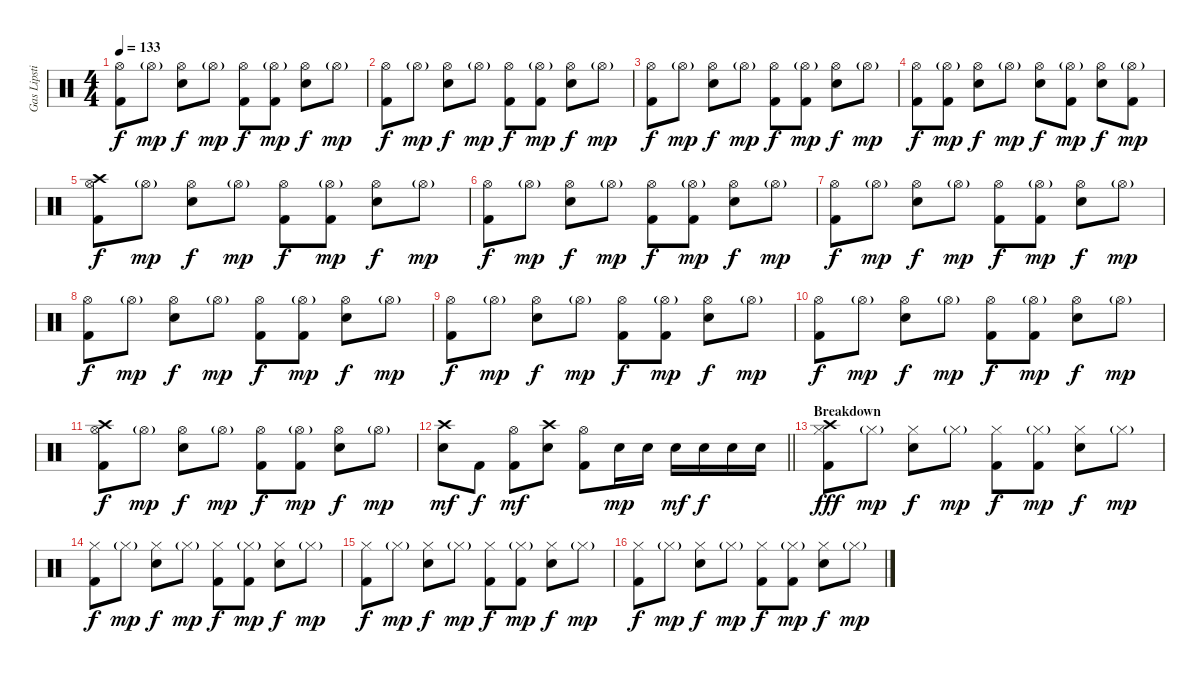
\track ("Gas Lipstick (Drums)" "Gas Lipsti") {instrument percussion}
\staff {score}
\articulation defaults
\ts (4 4)
\tempo 133
\clef neutral
\ks c
("Hi-Hat (open)" "Kick (hit) 2").8{dy f} "Hi-Hat (open)"{g}.8{dy mp} ("Hi-Hat (open)" "Snare (hit) 2").8{dy f} "Hi-Hat (open)"{g}.8{dy mp} ("Hi-Hat (open)" "Kick (hit) 2").8{dy f} ("Hi-Hat (open)"{g} "Kick (hit) 2").8{dy mp} ("Hi-Hat (open)" "Snare (hit) 2").8{dy f} "Hi-Hat (open)"{g}.8{dy mp} |
("Hi-Hat (open)" "Kick (hit) 2").8{dy f} "Hi-Hat (open)"{g}.8{dy mp} ("Hi-Hat (open)" "Snare (hit) 2").8{dy f} "Hi-Hat (open)"{g}.8{dy mp} ("Hi-Hat (open)" "Kick (hit) 2").8{dy f} ("Hi-Hat (open)"{g} "Kick (hit) 2").8{dy mp} ("Hi-Hat (open)" "Snare (hit) 2").8{dy f} "Hi-Hat (open)"{g}.8{dy mp} |
("Hi-Hat (open)" "Kick (hit) 2").8{dy f} "Hi-Hat (open)"{g}.8{dy mp} ("Hi-Hat (open)" "Snare (hit) 2").8{dy f} "Hi-Hat (open)"{g}.8{dy mp} ("Hi-Hat (open)" "Kick (hit) 2").8{dy f} ("Hi-Hat (open)"{g} "Kick (hit) 2").8{dy mp} ("Hi-Hat (open)" "Snare (hit) 2").8{dy f} "Hi-Hat (open)"{g}.8{dy mp} |
("Hi-Hat (open)" "Kick (hit) 2").8{dy f} ("Hi-Hat (open)"{g} "Kick (hit) 2").8{dy mp} ("Hi-Hat (open)" "Snare (hit) 2").8{dy f} "Hi-Hat (open)"{g}.8{dy mp} ("Hi-Hat (open)" "Snare (hit) 2").8{dy f} ("Hi-Hat (open)"{g} "Kick (hit) 2").8{dy mp} ("Hi-Hat (open)" "Snare (hit) 2").8{dy f} ("Hi-Hat (open)"{g} "Kick (hit) 2").8{dy mp} |
("Crash high (hit)" "Hi-Hat (open)" "Kick (hit) 2").8{dy f} "Hi-Hat (open)"{g}.8{dy mp} ("Hi-Hat (open)" "Snare (hit) 2").8{dy f} "Hi-Hat (open)"{g}.8{dy mp} ("Hi-Hat (open)" "Kick (hit) 2").8{dy f} ("Hi-Hat (open)"{g} "Kick (hit) 2").8{dy mp} ("Hi-Hat (open)" "Snare (hit) 2").8{dy f} "Hi-Hat (open)"{g}.8{dy mp} |
("Hi-Hat (open)" "Kick (hit) 2").8{dy f} "Hi-Hat (open)"{g}.8{dy mp} ("Hi-Hat (open)" "Snare (hit) 2").8{dy f} "Hi-Hat (open)"{g}.8{dy mp} ("Hi-Hat (open)" "Kick (hit) 2").8{dy f} ("Hi-Hat (open)"{g} "Kick (hit) 2").8{dy mp} ("Hi-Hat (open)" "Snare (hit) 2").8{dy f} "Hi-Hat (open)"{g}.8{dy mp} |
("Hi-Hat (open)" "Kick (hit) 2").8{dy f} "Hi-Hat (open)"{g}.8{dy mp} ("Hi-Hat (open)" "Snare (hit) 2").8{dy f} "Hi-Hat (open)"{g}.8{dy mp} ("Hi-Hat (open)" "Kick (hit) 2").8{dy f} ("Hi-Hat (open)"{g} "Kick (hit) 2").8{dy mp} ("Hi-Hat (open)" "Snare (hit) 2").8{dy f} "Hi-Hat (open)"{g}.8{dy mp} |
("Hi-Hat (open)" "Kick (hit) 2").8{dy f} "Hi-Hat (open)"{g}.8{dy mp} ("Hi-Hat (open)" "Snare (hit) 2").8{dy f} "Hi-Hat (open)"{g}.8{dy mp} ("Hi-Hat (open)" "Kick (hit) 2").8{dy f} ("Hi-Hat (open)"{g} "Kick (hit) 2").8{dy mp} ("Hi-Hat (open)" "Snare (hit) 2").8{dy f} "Hi-Hat (open)"{g}.8{dy mp} |
("Hi-Hat (open)" "Kick (hit) 2").8{dy f} "Hi-Hat (open)"{g}.8{dy mp} ("Hi-Hat (open)" "Snare (hit) 2").8{dy f} "Hi-Hat (open)"{g}.8{dy mp} ("Hi-Hat (open)" "Kick (hit) 2").8{dy f} ("Hi-Hat (open)"{g} "Kick (hit) 2").8{dy mp} ("Hi-Hat (open)" "Snare (hit) 2").8{dy f} "Hi-Hat (open)"{g}.8{dy mp} |
("Hi-Hat (open)" "Kick (hit) 2").8{dy f} "Hi-Hat (open)"{g}.8{dy mp} ("Hi-Hat (open)" "Snare (hit) 2").8{dy f} "Hi-Hat (open)"{g}.8{dy mp} ("Hi-Hat (open)" "Kick (hit) 2").8{dy f} ("Hi-Hat (open)"{g} "Kick (hit) 2").8{dy mp} ("Hi-Hat (open)" "Snare (hit) 2").8{dy f} "Hi-Hat (open)"{g}.8{dy mp} |
("Crash high (hit)" "Hi-Hat (open)" "Kick (hit) 2").8{dy f} "Hi-Hat (open)"{g}.8{dy mp} ("Hi-Hat (open)" "Snare (hit) 2").8{dy f} "Hi-Hat (open)"{g}.8{dy mp} ("Hi-Hat (open)" "Kick (hit) 2").8{dy f} ("Hi-Hat (open)"{g} "Kick (hit) 2").8{dy mp} ("Hi-Hat (open)" "Snare (hit) 2").8{dy f} "Hi-Hat (open)"{g}.8{dy mp} |
\barLineRight lightlight
("Crash high (hit)" "Snare (hit) 2").8{dy mf} "Kick (hit) 2".8{dy f} ("Hi-Hat (open)" "Kick (hit) 2").8{dy mf} ("Crash high (hit)" "Snare (hit) 2").8 ("Hi-Hat (open)" "Kick (hit) 2").8 "Snare (hit) 2".16{dy mp} "Snare (hit) 2".16 "Snare (hit) 2".16{dy mf} "Snare (hit) 2".16{dy f} "Snare (hit) 2".16 "Snare (hit) 2".16 |
\section ("" "Breakdown")
("Crash high (hit)" "Hi-Hat (closed)" "Kick (hit) 2").8{dy fff} "Hi-Hat (closed)"{g}.8{dy mp} ("Hi-Hat (closed)" "Snare (hit) 2").8{dy f} "Hi-Hat (closed)"{g}.8{dy mp} ("Hi-Hat (closed)" "Kick (hit) 2").8{dy f} ("Hi-Hat (closed)"{g} "Kick (hit) 2").8{dy mp} ("Hi-Hat (closed)" "Snare (hit) 2").8{dy f} "Hi-Hat (closed)"{g}.8{dy mp} |
("Hi-Hat (closed)" "Kick (hit) 2").8{dy f} "Hi-Hat (closed)"{g}.8{dy mp} ("Hi-Hat (closed)" "Snare (hit) 2").8{dy f} "Hi-Hat (closed)"{g}.8{dy mp} ("Hi-Hat (closed)" "Kick (hit) 2").8{dy f} ("Hi-Hat (closed)"{g} "Kick (hit) 2").8{dy mp} ("Hi-Hat (closed)" "Snare (hit) 2").8{dy f} "Hi-Hat (closed)"{g}.8{dy mp} |
("Hi-Hat (closed)" "Kick (hit) 2").8{dy f} "Hi-Hat (closed)"{g}.8{dy mp} ("Hi-Hat (closed)" "Snare (hit) 2").8{dy f} "Hi-Hat (closed)"{g}.8{dy mp} ("Hi-Hat (closed)" "Kick (hit) 2").8{dy f} ("Hi-Hat (closed)"{g} "Kick (hit) 2").8{dy mp} ("Hi-Hat (closed)" "Snare (hit) 2").8{dy f} "Hi-Hat (closed)"{g}.8{dy mp} |
("Hi-Hat (closed)" "Kick (hit) 2").8{dy f} "Hi-Hat (closed)"{g}.8{dy mp} ("Hi-Hat (closed)" "Snare (hit) 2").8{dy f} "Hi-Hat (closed)"{g}.8{dy mp} ("Hi-Hat (closed)" "Kick (hit) 2").8{dy f} ("Hi-Hat (closed)"{g} "Kick (hit) 2").8{dy mp} ("Hi-Hat (closed)" "Snare (hit) 2").8{dy f} "Hi-Hat (closed)"{g}.8{dy mp}
